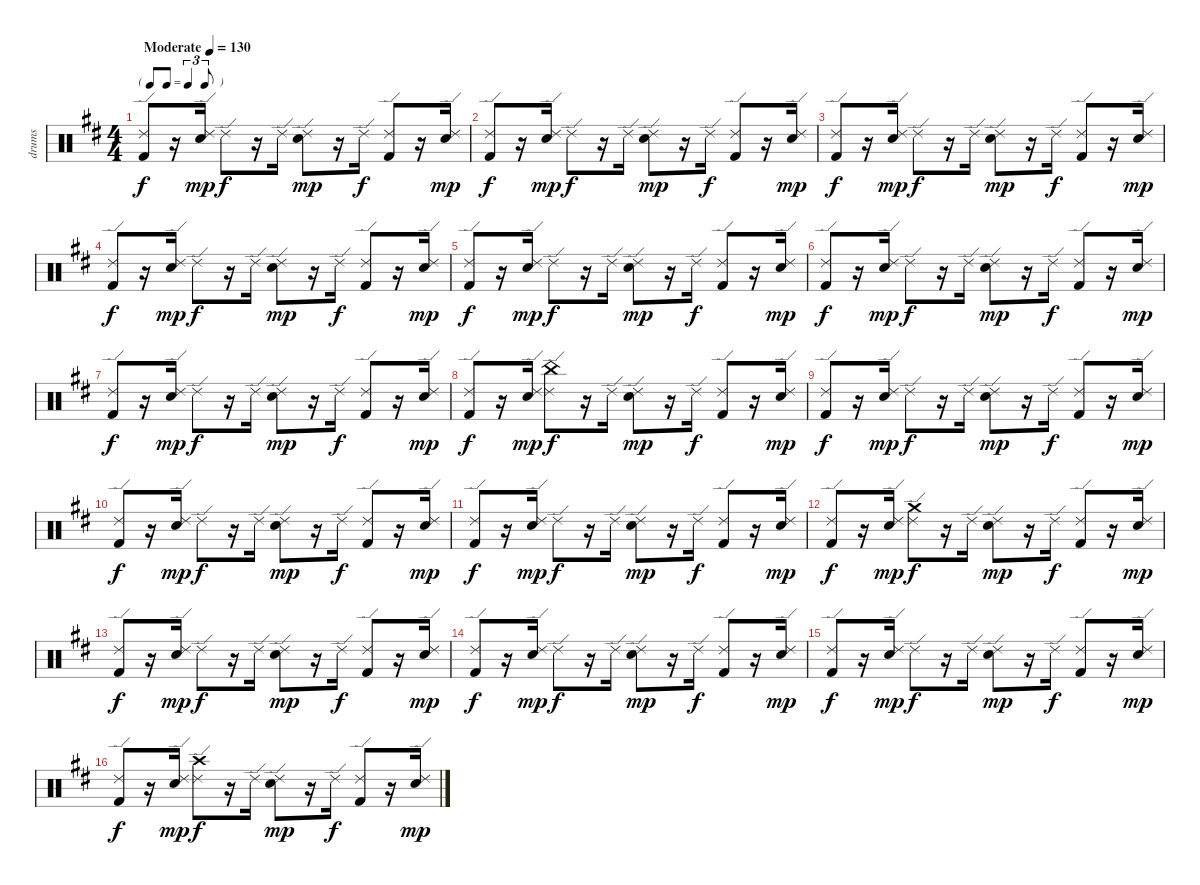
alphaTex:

\track ("drums" "drums") {instrument percussion}
\staff {score}
\articulation defaults
\ts (4 4)
\tf triplet8th
\tempo (130 "Moderate")
\clef neutral
\ks d
("Ride (edge) 2" "Kick (hit) 2").8{dy f} r.16 ("Ride (edge) 2" "Electric Snare (hit)").16{dy mp} "Ride (edge) 2".8{dy f} r.16 "Ride (edge) 2".16 ("Ride (edge) 2" "Electric Snare (hit)").8{dy mp} r.16 "Ride (edge) 2".16{dy f} ("Ride (edge) 2" "Kick (hit) 2").8 r.16 ("Ride (edge) 2" "Electric Snare (hit)").16{dy mp} |
("Ride (edge) 2" "Kick (hit) 2").8{dy f} r.16 ("Ride (edge) 2" "Electric Snare (hit)").16{dy mp} "Ride (edge) 2".8{dy f} r.16 "Ride (edge) 2".16 ("Ride (edge) 2" "Electric Snare (hit)").8{dy mp} r.16 "Ride (edge) 2".16{dy f} ("Ride (edge) 2" "Kick (hit) 2").8 r.16 ("Ride (edge) 2" "Electric Snare (hit)").16{dy mp} |
("Ride (edge) 2" "Kick (hit) 2").8{dy f} r.16 ("Ride (edge) 2" "Electric Snare (hit)").16{dy mp} "Ride (edge) 2".8{dy f} r.16 "Ride (edge) 2".16 ("Ride (edge) 2" "Electric Snare (hit)").8{dy mp} r.16 "Ride (edge) 2".16{dy f} ("Ride (edge) 2" "Kick (hit) 2").8 r.16 ("Ride (edge) 2" "Electric Snare (hit)").16{dy mp} |
("Ride (edge) 2" "Kick (hit) 2").8{dy f} r.16 ("Ride (edge) 2" "Electric Snare (hit)").16{dy mp} "Ride (edge) 2".8{dy f} r.16 "Ride (edge) 2".16 ("Ride (edge) 2" "Electric Snare (hit)").8{dy mp} r.16 "Ride (edge) 2".16{dy f} ("Ride (edge) 2" "Kick (hit) 2").8 r.16 ("Ride (edge) 2" "Electric Snare (hit)").16{dy mp} |
("Ride (edge) 2" "Kick (hit) 2").8{dy f} r.16 ("Ride (edge) 2" "Electric Snare (hit)").16{dy mp} "Ride (edge) 2".8{dy f} r.16 "Ride (edge) 2".16 ("Ride (edge) 2" "Electric Snare (hit)").8{dy mp} r.16 "Ride (edge) 2".16{dy f} ("Ride (edge) 2" "Kick (hit) 2").8 r.16 ("Ride (edge) 2" "Electric Snare (hit)").16{dy mp} |
("Ride (edge) 2" "Kick (hit) 2").8{dy f} r.16 ("Ride (edge) 2" "Electric Snare (hit)").16{dy mp} "Ride (edge) 2".8{dy f} r.16 "Ride (edge) 2".16 ("Ride (edge) 2" "Electric Snare (hit)").8{dy mp} r.16 "Ride (edge) 2".16{dy f} ("Ride (edge) 2" "Kick (hit) 2").8 r.16 ("Ride (edge) 2" "Electric Snare (hit)").16{dy mp} |
("Ride (edge) 2" "Kick (hit) 2").8{dy f} r.16 ("Ride (edge) 2" "Electric Snare (hit)").16{dy mp} "Ride (edge) 2".8{dy f} r.16 "Ride (edge) 2".16 ("Ride (edge) 2" "Electric Snare (hit)").8{dy mp} r.16 "Ride (edge) 2".16{dy f} ("Ride (edge) 2" "Kick (hit) 2").8 r.16 ("Ride (edge) 2" "Electric Snare (hit)").16{dy mp} |
("Ride (edge) 2" "Kick (hit) 2").8{dy f} r.16 ("Ride (edge) 2" "Electric Snare (hit)").16{dy mp} ("China (hit)" "Ride (edge) 2").8{dy f} r.16 "Ride (edge) 2".16 ("Ride (edge) 2" "Electric Snare (hit)").8{dy mp} r.16 "Ride (edge) 2".16{dy f} ("Ride (edge) 2" "Kick (hit) 2").8 r.16 ("Ride (edge) 2" "Electric Snare (hit)").16{dy mp} |
("Ride (edge) 2" "Kick (hit) 2").8{dy f} r.16 ("Ride (edge) 2" "Electric Snare (hit)").16{dy mp} "Ride (edge) 2".8{dy f} r.16 "Ride (edge) 2".16 ("Ride (edge) 2" "Electric Snare (hit)").8{dy mp} r.16 "Ride (edge) 2".16{dy f} ("Ride (edge) 2" "Kick (hit) 2").8 r.16 ("Ride (edge) 2" "Electric Snare (hit)").16{dy mp} |
("Ride (edge) 2" "Kick (hit) 2").8{dy f} r.16 ("Ride (edge) 2" "Electric Snare (hit)").16{dy mp} "Ride (edge) 2".8{dy f} r.16 "Ride (edge) 2".16 ("Ride (edge) 2" "Electric Snare (hit)").8{dy mp} r.16 "Ride (edge) 2".16{dy f} ("Ride (edge) 2" "Kick (hit) 2").8 r.16 ("Ride (edge) 2" "Electric Snare (hit)").16{dy mp} |
("Ride (edge) 2" "Kick (hit) 2").8{dy f} r.16 ("Ride (edge) 2" "Electric Snare (hit)").16{dy mp} "Ride (edge) 2".8{dy f} r.16 "Ride (edge) 2".16 ("Ride (edge) 2" "Electric Snare (hit)").8{dy mp} r.16 "Ride (edge) 2".16{dy f} ("Ride (edge) 2" "Kick (hit) 2").8 r.16 ("Ride (edge) 2" "Electric Snare (hit)").16{dy mp} |
("Ride (edge) 2" "Kick (hit) 2").8{dy f} r.16 ("Ride (edge) 2" "Electric Snare (hit)").16{dy mp} ("Crash medium (hit)" "Ride (edge) 2").8{dy f} r.16 "Ride (edge) 2".16 ("Ride (edge) 2" "Electric Snare (hit)").8{dy mp} r.16 "Ride (edge) 2".16{dy f} ("Ride (edge) 2" "Kick (hit) 2").8 r.16 ("Ride (edge) 2" "Electric Snare (hit)").16{dy mp} |
("Ride (edge) 2" "Kick (hit) 2").8{dy f} r.16 ("Ride (edge) 2" "Electric Snare (hit)").16{dy mp} "Ride (edge) 2".8{dy f} r.16 "Ride (edge) 2".16 ("Ride (edge) 2" "Electric Snare (hit)").8{dy mp} r.16 "Ride (edge) 2".16{dy f} ("Ride (edge) 2" "Kick (hit) 2").8 r.16 ("Ride (edge) 2" "Electric Snare (hit)").16{dy mp} |
("Ride (edge) 2" "Kick (hit) 2").8{dy f} r.16 ("Ride (edge) 2" "Electric Snare (hit)").16{dy mp} "Ride (edge) 2".8{dy f} r.16 "Ride (edge) 2".16 ("Ride (edge) 2" "Electric Snare (hit)").8{dy mp} r.16 "Ride (edge) 2".16{dy f} ("Ride (edge) 2" "Kick (hit) 2").8 r.16 ("Ride (edge) 2" "Electric Snare (hit)").16{dy mp} |
("Ride (edge) 2" "Kick (hit) 2").8{dy f} r.16 ("Ride (edge) 2" "Electric Snare (hit)").16{dy mp} "Ride (edge) 2".8{dy f} r.16 "Ride (edge) 2".16 ("Ride (edge) 2" "Electric Snare (hit)").8{dy mp} r.16 "Ride (edge) 2".16{dy f} ("Ride (edge) 2" "Kick (hit) 2").8 r.16 ("Ride (edge) 2" "Electric Snare (hit)").16{dy mp} |
("Ride (edge) 2" "Kick (hit) 2").8{dy f} r.16 ("Ride (edge) 2" "Electric Snare (hit)").16{dy mp} ("Crash high (hit)" "Ride (edge) 2").8{dy f} r.16 "Ride (edge) 2".16 ("Ride (edge) 2" "Electric Snare (hit)").8{dy mp} r.16 "Ride (edge) 2".16{dy f} ("Ride (edge) 2" "Kick (hit) 2").8 r.16 ("Ride (edge) 2" "Electric Snare (hit)").16{dy mp}
